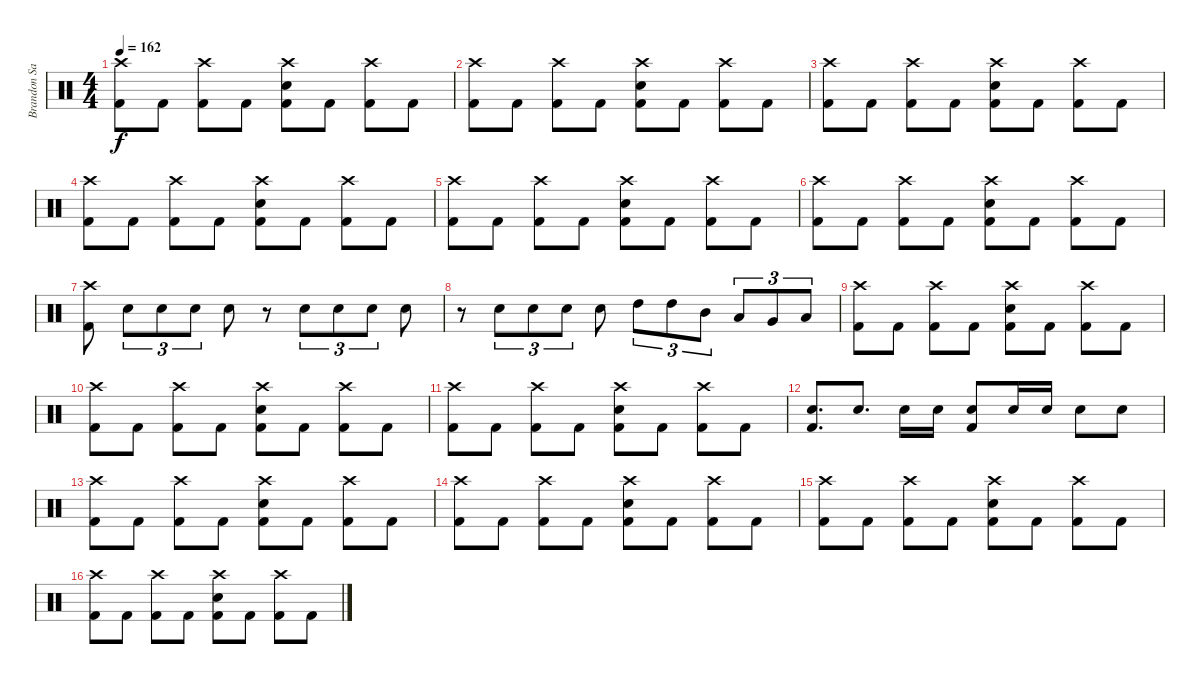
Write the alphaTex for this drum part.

\track ("Brandon Saller" "Brandon Sa") {instrument percussion}
\staff {score}
\articulation defaults
\ts (4 4)
\tempo 162
\clef neutral
\ks c
("Crash high (hit)" "Kick (hit) 2").8{dy f} "Kick (hit) 2".8 ("Crash high (hit)" "Kick (hit) 2").8 "Kick (hit) 2".8 ("Crash high (hit)" "Electric Snare (hit)" "Kick (hit) 2").8 "Kick (hit) 2".8 ("Crash high (hit)" "Kick (hit) 2").8 "Kick (hit) 2".8 |
("Crash high (hit)" "Kick (hit) 2").8 "Kick (hit) 2".8 ("Crash high (hit)" "Kick (hit) 2").8 "Kick (hit) 2".8 ("Crash high (hit)" "Electric Snare (hit)" "Kick (hit) 2").8 "Kick (hit) 2".8 ("Crash high (hit)" "Kick (hit) 2").8 "Kick (hit) 2".8 |
("Crash high (hit)" "Kick (hit) 2").8 "Kick (hit) 2".8 ("Crash high (hit)" "Kick (hit) 2").8 "Kick (hit) 2".8 ("Crash high (hit)" "Electric Snare (hit)" "Kick (hit) 2").8 "Kick (hit) 2".8 ("Crash high (hit)" "Kick (hit) 2").8 "Kick (hit) 2".8 |
("Crash high (hit)" "Kick (hit) 2").8 "Kick (hit) 2".8 ("Crash high (hit)" "Kick (hit) 2").8 "Kick (hit) 2".8 ("Crash high (hit)" "Electric Snare (hit)" "Kick (hit) 2").8 "Kick (hit) 2".8 ("Crash high (hit)" "Kick (hit) 2").8 "Kick (hit) 2".8 |
("Crash high (hit)" "Kick (hit) 2").8 "Kick (hit) 2".8 ("Crash high (hit)" "Kick (hit) 2").8 "Kick (hit) 2".8 ("Crash high (hit)" "Electric Snare (hit)" "Kick (hit) 2").8 "Kick (hit) 2".8 ("Crash high (hit)" "Kick (hit) 2").8 "Kick (hit) 2".8 |
("Crash high (hit)" "Kick (hit) 2").8 "Kick (hit) 2".8 ("Crash high (hit)" "Kick (hit) 2").8 "Kick (hit) 2".8 ("Crash high (hit)" "Electric Snare (hit)" "Kick (hit) 2").8 "Kick (hit) 2".8 ("Crash high (hit)" "Kick (hit) 2").8 "Kick (hit) 2".8 |
("Crash high (hit)" "Kick (hit) 2").8 "Electric Snare (hit)".8{tu (3 2)} "Electric Snare (hit)".8{tu (3 2)} "Electric Snare (hit)".8{tu (3 2)} "Electric Snare (hit)".8 r.8 "Electric Snare (hit)".8{tu (3 2)} "Electric Snare (hit)".8{tu (3 2)} "Electric Snare (hit)".8{tu (3 2)} "Electric Snare (hit)".8 |
r.8 "Electric Snare (hit)".8{tu (3 2)} "Electric Snare (hit)".8{tu (3 2)} "Electric Snare (hit)".8{tu (3 2)} "Electric Snare (hit)".8 "High Tom (hit)".8{tu (3 2)} "High Tom (hit)".8{tu (3 2)} "Mid Tom (hit)".8{tu (3 2)} "Low Tom (hit)".8{tu (3 2)} "Very Low Tom (hit)".8{tu (3 2)} "Low Floor Tom (hit)".8{tu (3 2)} |
("Crash high (hit)" "Kick (hit) 2").8 "Kick (hit) 2".8 ("Crash high (hit)" "Kick (hit) 2").8 "Kick (hit) 2".8 ("Crash high (hit)" "Electric Snare (hit)" "Kick (hit) 2").8 "Kick (hit) 2".8 ("Crash high (hit)" "Kick (hit) 2").8 "Kick (hit) 2".8 |
("Crash high (hit)" "Kick (hit) 2").8 "Kick (hit) 2".8 ("Crash high (hit)" "Kick (hit) 2").8 "Kick (hit) 2".8 ("Crash high (hit)" "Electric Snare (hit)" "Kick (hit) 2").8 "Kick (hit) 2".8 ("Crash high (hit)" "Kick (hit) 2").8 "Kick (hit) 2".8 |
("Crash high (hit)" "Kick (hit) 2").8 "Kick (hit) 2".8 ("Crash high (hit)" "Kick (hit) 2").8 "Kick (hit) 2".8 ("Crash high (hit)" "Electric Snare (hit)" "Kick (hit) 2").8 "Kick (hit) 2".8 ("Crash high (hit)" "Kick (hit) 2").8 "Kick (hit) 2".8 |
("Electric Snare (hit)" "Kick (hit) 2").8{d} "Electric Snare (hit)".8{d} "Electric Snare (hit)".16 "Electric Snare (hit)".16 ("Electric Snare (hit)" "Kick (hit) 2").8 "Electric Snare (hit)".16 "Electric Snare (hit)".16 "Electric Snare (hit)".8 "Electric Snare (hit)".8 |
("Crash high (hit)" "Kick (hit) 2").8 "Kick (hit) 2".8 ("Crash high (hit)" "Kick (hit) 2").8 "Kick (hit) 2".8 ("Crash high (hit)" "Electric Snare (hit)" "Kick (hit) 2").8 "Kick (hit) 2".8 ("Crash high (hit)" "Kick (hit) 2").8 "Kick (hit) 2".8 |
("Crash high (hit)" "Kick (hit) 2").8 "Kick (hit) 2".8 ("Crash high (hit)" "Kick (hit) 2").8 "Kick (hit) 2".8 ("Crash high (hit)" "Electric Snare (hit)" "Kick (hit) 2").8 "Kick (hit) 2".8 ("Crash high (hit)" "Kick (hit) 2").8 "Kick (hit) 2".8 |
("Crash high (hit)" "Kick (hit) 2").8 "Kick (hit) 2".8 ("Crash high (hit)" "Kick (hit) 2").8 "Kick (hit) 2".8 ("Crash high (hit)" "Electric Snare (hit)" "Kick (hit) 2").8 "Kick (hit) 2".8 ("Crash high (hit)" "Kick (hit) 2").8 "Kick (hit) 2".8 |
("Crash high (hit)" "Kick (hit) 2").8 "Kick (hit) 2".8 ("Crash high (hit)" "Kick (hit) 2").8 "Kick (hit) 2".8 ("Crash high (hit)" "Electric Snare (hit)" "Kick (hit) 2").8 "Kick (hit) 2".8 ("Crash high (hit)" "Kick (hit) 2").8 "Kick (hit) 2".8
